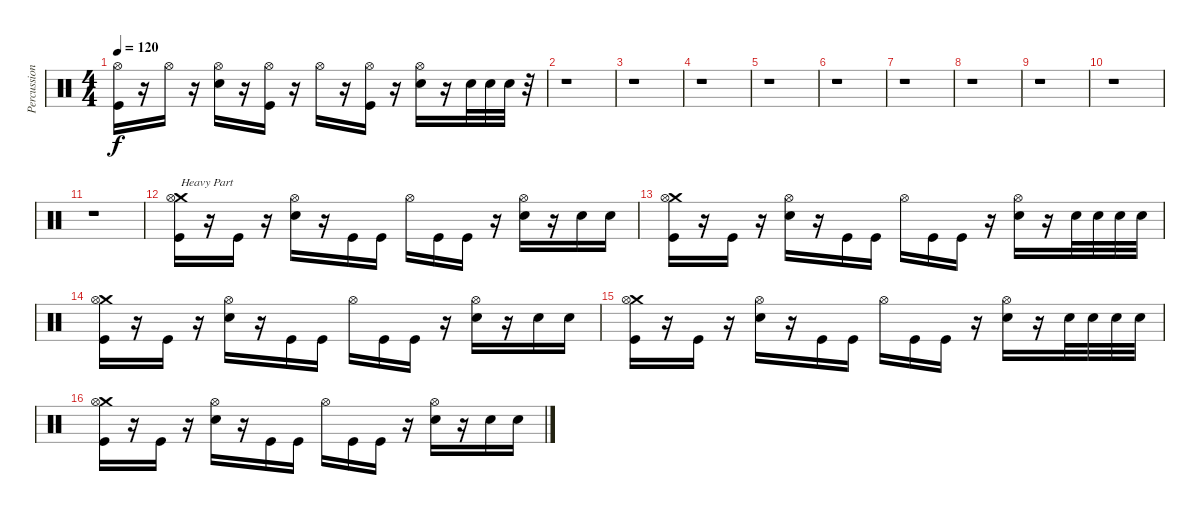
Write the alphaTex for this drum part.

\track ("Percussion" "Percussion") {instrument percussion}
\staff {score}
\articulation defaults
\ts (4 4)
\tempo 120
\clef neutral
\ks c
("Hi-Hat (open)" "Kick (hit)").16{dy f} r.16 "Hi-Hat (open)".16 r.16 ("Hi-Hat (open)" "Electric Snare (hit)").16 r.16 ("Hi-Hat (open)" "Kick (hit)").16 r.16 "Hi-Hat (open)".16 r.16 ("Hi-Hat (open)" "Kick (hit)").16 r.16 ("Hi-Hat (open)" "Electric Snare (hit)").16 r.16 "Electric Snare (hit)".32 "Electric Snare (hit)".32 "Electric Snare (hit)".32 r.32 |
r.1 |
r.1 |
r.1 |
r.1 |
r.1 |
r.1 |
r.1 |
r.1 |
r.1 |
r.1 |
("Crash medium (hit)" "Hi-Hat (open)" "Kick (hit)").16{txt "Heavy Part"} r.16 "Kick (hit)".16 r.16 ("Hi-Hat (open)" "Electric Snare (hit)").16 r.16 "Kick (hit)".16 "Kick (hit)".16 "Hi-Hat (open)".16 "Kick (hit)".16 "Kick (hit)".16 r.16 ("Hi-Hat (open)" "Electric Snare (hit)").16 r.16 "Electric Snare (hit)".16 "Electric Snare (hit)".16 |
("Crash medium (hit)" "Hi-Hat (open)" "Kick (hit)").16 r.16 "Kick (hit)".16 r.16 ("Hi-Hat (open)" "Electric Snare (hit)").16 r.16 "Kick (hit)".16 "Kick (hit)".16 "Hi-Hat (open)".16 "Kick (hit)".16 "Kick (hit)".16 r.16 ("Hi-Hat (open)" "Electric Snare (hit)").16 r.16 "Electric Snare (hit)".32 "Electric Snare (hit)".32 "Electric Snare (hit)".32 "Electric Snare (hit)".32 |
("Crash medium (hit)" "Hi-Hat (open)" "Kick (hit)").16 r.16 "Kick (hit)".16 r.16 ("Hi-Hat (open)" "Electric Snare (hit)").16 r.16 "Kick (hit)".16 "Kick (hit)".16 "Hi-Hat (open)".16 "Kick (hit)".16 "Kick (hit)".16 r.16 ("Hi-Hat (open)" "Electric Snare (hit)").16 r.16 "Electric Snare (hit)".16 "Electric Snare (hit)".16 |
("Crash medium (hit)" "Hi-Hat (open)" "Kick (hit)").16 r.16 "Kick (hit)".16 r.16 ("Hi-Hat (open)" "Electric Snare (hit)").16 r.16 "Kick (hit)".16 "Kick (hit)".16 "Hi-Hat (open)".16 "Kick (hit)".16 "Kick (hit)".16 r.16 ("Hi-Hat (open)" "Electric Snare (hit)").16 r.16 "Electric Snare (hit)".32 "Electric Snare (hit)".32 "Electric Snare (hit)".32 "Electric Snare (hit)".32 |
("Crash medium (hit)" "Hi-Hat (open)" "Kick (hit)").16 r.16 "Kick (hit)".16 r.16 ("Hi-Hat (open)" "Electric Snare (hit)").16 r.16 "Kick (hit)".16 "Kick (hit)".16 "Hi-Hat (open)".16 "Kick (hit)".16 "Kick (hit)".16 r.16 ("Hi-Hat (open)" "Electric Snare (hit)").16 r.16 "Electric Snare (hit)".16 "Electric Snare (hit)".16
